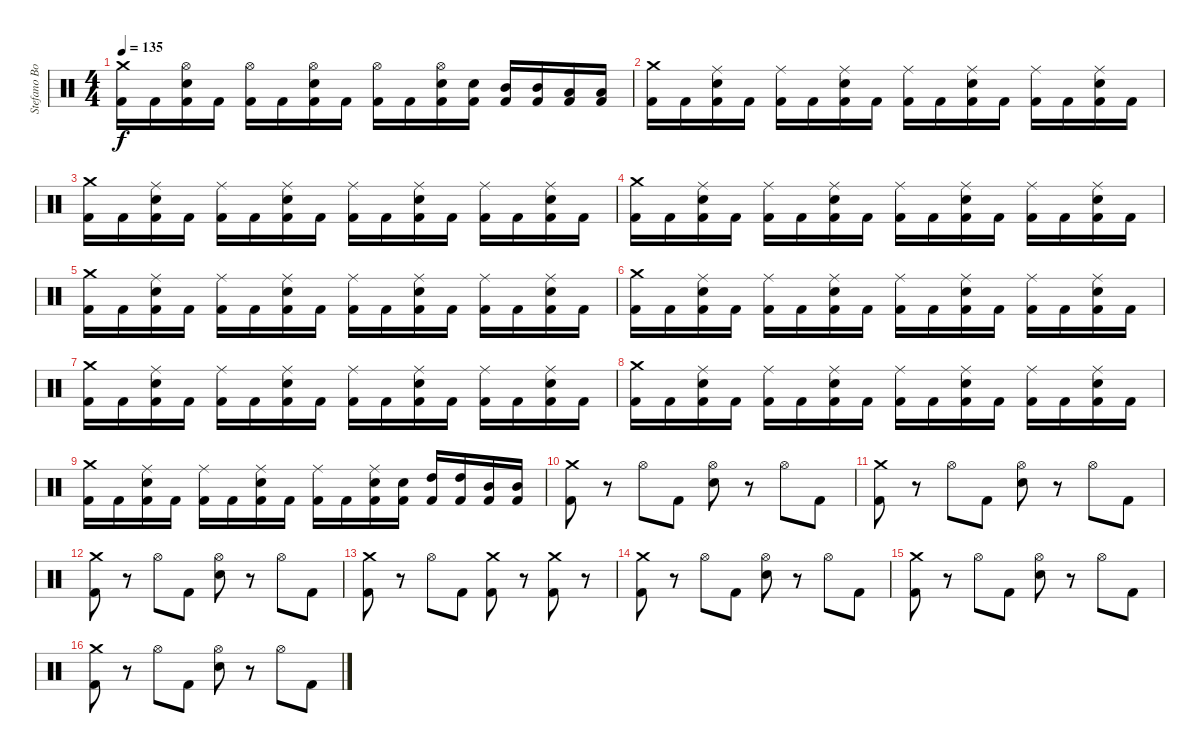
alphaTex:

\track ("Stefano Bonini" "Stefano Bo") {instrument percussion}
\staff {score}
\articulation defaults
\ts (4 4)
\tempo 135
\clef neutral
\ks c
("Crash medium (hit)" "Kick (hit) 2").16{dy f} "Kick (hit) 2".16 ("Hi-Hat (open)" "Electric Snare (hit)" "Kick (hit) 2").16 "Kick (hit) 2".16 ("Hi-Hat (open)" "Kick (hit) 2").16 "Kick (hit) 2".16 ("Hi-Hat (open)" "Electric Snare (hit)" "Kick (hit) 2").16 "Kick (hit) 2".16 ("Hi-Hat (open)" "Kick (hit) 2").16 "Kick (hit) 2".16 ("Hi-Hat (open)" "Electric Snare (hit)" "Kick (hit) 2").16 ("Electric Snare (hit)" "Kick (hit) 2").16 ("Mid Tom (hit)" "Kick (hit) 2").16 ("Mid Tom (hit)" "Kick (hit) 2").16 ("Low Tom (hit)" "Kick (hit) 2").16 ("Low Tom (hit)" "Kick (hit) 2").16 |
("Crash medium (hit)" "Kick (hit) 2").16 "Kick (hit) 2".16 ("Ride (middle)" "Electric Snare (hit)" "Kick (hit) 2").16 "Kick (hit) 2".16 ("Ride (middle)" "Kick (hit) 2").16 "Kick (hit) 2".16 ("Ride (middle)" "Electric Snare (hit)" "Kick (hit) 2").16 "Kick (hit) 2".16 ("Ride (middle)" "Kick (hit) 2").16 "Kick (hit) 2".16 ("Ride (middle)" "Electric Snare (hit)" "Kick (hit) 2").16 "Kick (hit) 2".16 ("Ride (middle)" "Kick (hit) 2").16 "Kick (hit) 2".16 ("Ride (middle)" "Electric Snare (hit)" "Kick (hit) 2").16 "Kick (hit) 2".16 |
("Crash medium (hit)" "Kick (hit) 2").16 "Kick (hit) 2".16 ("Ride (middle)" "Electric Snare (hit)" "Kick (hit) 2").16 "Kick (hit) 2".16 ("Ride (middle)" "Kick (hit) 2").16 "Kick (hit) 2".16 ("Ride (middle)" "Electric Snare (hit)" "Kick (hit) 2").16 "Kick (hit) 2".16 ("Ride (middle)" "Kick (hit) 2").16 "Kick (hit) 2".16 ("Ride (middle)" "Electric Snare (hit)" "Kick (hit) 2").16 "Kick (hit) 2".16 ("Ride (middle)" "Kick (hit) 2").16 "Kick (hit) 2".16 ("Ride (middle)" "Electric Snare (hit)" "Kick (hit) 2").16 "Kick (hit) 2".16 |
("Crash medium (hit)" "Kick (hit) 2").16 "Kick (hit) 2".16 ("Ride (middle)" "Electric Snare (hit)" "Kick (hit) 2").16 "Kick (hit) 2".16 ("Ride (middle)" "Kick (hit) 2").16 "Kick (hit) 2".16 ("Ride (middle)" "Electric Snare (hit)" "Kick (hit) 2").16 "Kick (hit) 2".16 ("Ride (middle)" "Kick (hit) 2").16 "Kick (hit) 2".16 ("Ride (middle)" "Electric Snare (hit)" "Kick (hit) 2").16 "Kick (hit) 2".16 ("Ride (middle)" "Kick (hit) 2").16 "Kick (hit) 2".16 ("Ride (middle)" "Electric Snare (hit)" "Kick (hit) 2").16 "Kick (hit) 2".16 |
("Crash medium (hit)" "Kick (hit) 2").16 "Kick (hit) 2".16 ("Ride (middle)" "Electric Snare (hit)" "Kick (hit) 2").16 "Kick (hit) 2".16 ("Ride (middle)" "Kick (hit) 2").16 "Kick (hit) 2".16 ("Ride (middle)" "Electric Snare (hit)" "Kick (hit) 2").16 "Kick (hit) 2".16 ("Ride (middle)" "Kick (hit) 2").16 "Kick (hit) 2".16 ("Ride (middle)" "Electric Snare (hit)" "Kick (hit) 2").16 "Kick (hit) 2".16 ("Ride (middle)" "Kick (hit) 2").16 "Kick (hit) 2".16 ("Ride (middle)" "Electric Snare (hit)" "Kick (hit) 2").16 "Kick (hit) 2".16 |
("Crash medium (hit)" "Kick (hit) 2").16 "Kick (hit) 2".16 ("Ride (middle)" "Electric Snare (hit)" "Kick (hit) 2").16 "Kick (hit) 2".16 ("Ride (middle)" "Kick (hit) 2").16 "Kick (hit) 2".16 ("Ride (middle)" "Electric Snare (hit)" "Kick (hit) 2").16 "Kick (hit) 2".16 ("Ride (middle)" "Kick (hit) 2").16 "Kick (hit) 2".16 ("Ride (middle)" "Electric Snare (hit)" "Kick (hit) 2").16 "Kick (hit) 2".16 ("Ride (middle)" "Kick (hit) 2").16 "Kick (hit) 2".16 ("Ride (middle)" "Electric Snare (hit)" "Kick (hit) 2").16 "Kick (hit) 2".16 |
("Crash medium (hit)" "Kick (hit) 2").16 "Kick (hit) 2".16 ("Ride (middle)" "Electric Snare (hit)" "Kick (hit) 2").16 "Kick (hit) 2".16 ("Ride (middle)" "Kick (hit) 2").16 "Kick (hit) 2".16 ("Ride (middle)" "Electric Snare (hit)" "Kick (hit) 2").16 "Kick (hit) 2".16 ("Ride (middle)" "Kick (hit) 2").16 "Kick (hit) 2".16 ("Ride (middle)" "Electric Snare (hit)" "Kick (hit) 2").16 "Kick (hit) 2".16 ("Ride (middle)" "Kick (hit) 2").16 "Kick (hit) 2".16 ("Ride (middle)" "Electric Snare (hit)" "Kick (hit) 2").16 "Kick (hit) 2".16 |
("Crash medium (hit)" "Kick (hit) 2").16 "Kick (hit) 2".16 ("Ride (middle)" "Electric Snare (hit)" "Kick (hit) 2").16 "Kick (hit) 2".16 ("Ride (middle)" "Kick (hit) 2").16 "Kick (hit) 2".16 ("Ride (middle)" "Electric Snare (hit)" "Kick (hit) 2").16 "Kick (hit) 2".16 ("Ride (middle)" "Kick (hit) 2").16 "Kick (hit) 2".16 ("Ride (middle)" "Electric Snare (hit)" "Kick (hit) 2").16 "Kick (hit) 2".16 ("Ride (middle)" "Kick (hit) 2").16 "Kick (hit) 2".16 ("Ride (middle)" "Electric Snare (hit)" "Kick (hit) 2").16 "Kick (hit) 2".16 |
("Crash medium (hit)" "Kick (hit) 2").16 "Kick (hit) 2".16 ("Ride (middle)" "Electric Snare (hit)" "Kick (hit) 2").16 "Kick (hit) 2".16 ("Ride (middle)" "Kick (hit) 2").16 "Kick (hit) 2".16 ("Ride (middle)" "Electric Snare (hit)" "Kick (hit) 2").16 "Kick (hit) 2".16 ("Ride (middle)" "Kick (hit) 2").16 "Kick (hit) 2".16 ("Ride (middle)" "Electric Snare (hit)" "Kick (hit) 2").16 ("Electric Snare (hit)" "Kick (hit) 2").16 ("High Tom (hit)" "Kick (hit) 2").16 ("High Tom (hit)" "Kick (hit) 2").16 ("Mid Tom (hit)" "Kick (hit) 2").16 ("Mid Tom (hit)" "Kick (hit) 2").16 |
("Crash medium (hit)" "Kick (hit) 2").8 r.8 "Hi-Hat (open)".8 "Kick (hit) 2".8 ("Hi-Hat (open)" "Electric Snare (hit)").8 r.8 "Hi-Hat (open)".8 "Kick (hit) 2".8 |
("Crash medium (hit)" "Kick (hit) 2").8 r.8 "Hi-Hat (open)".8 "Kick (hit) 2".8 ("Hi-Hat (open)" "Electric Snare (hit)").8 r.8 "Hi-Hat (open)".8 "Kick (hit) 2".8 |
("Crash medium (hit)" "Kick (hit) 2").8 r.8 "Hi-Hat (open)".8 "Kick (hit) 2".8 ("Hi-Hat (open)" "Electric Snare (hit)").8 r.8 "Hi-Hat (open)".8 "Kick (hit) 2".8 |
("Crash medium (hit)" "Kick (hit) 2").8 r.8 "Hi-Hat (open)".8 "Kick (hit) 2".8 ("Crash medium (hit)" "Kick (hit) 2").8 r.8 ("Crash medium (hit)" "Kick (hit) 2").8 r.8 |
("Crash medium (hit)" "Kick (hit) 2").8 r.8 "Hi-Hat (open)".8 "Kick (hit) 2".8 ("Hi-Hat (open)" "Electric Snare (hit)").8 r.8 "Hi-Hat (open)".8 "Kick (hit) 2".8 |
("Crash medium (hit)" "Kick (hit) 2").8 r.8 "Hi-Hat (open)".8 "Kick (hit) 2".8 ("Hi-Hat (open)" "Electric Snare (hit)").8 r.8 "Hi-Hat (open)".8 "Kick (hit) 2".8 |
("Crash medium (hit)" "Kick (hit) 2").8 r.8 "Hi-Hat (open)".8 "Kick (hit) 2".8 ("Hi-Hat (open)" "Electric Snare (hit)").8 r.8 "Hi-Hat (open)".8 "Kick (hit) 2".8
